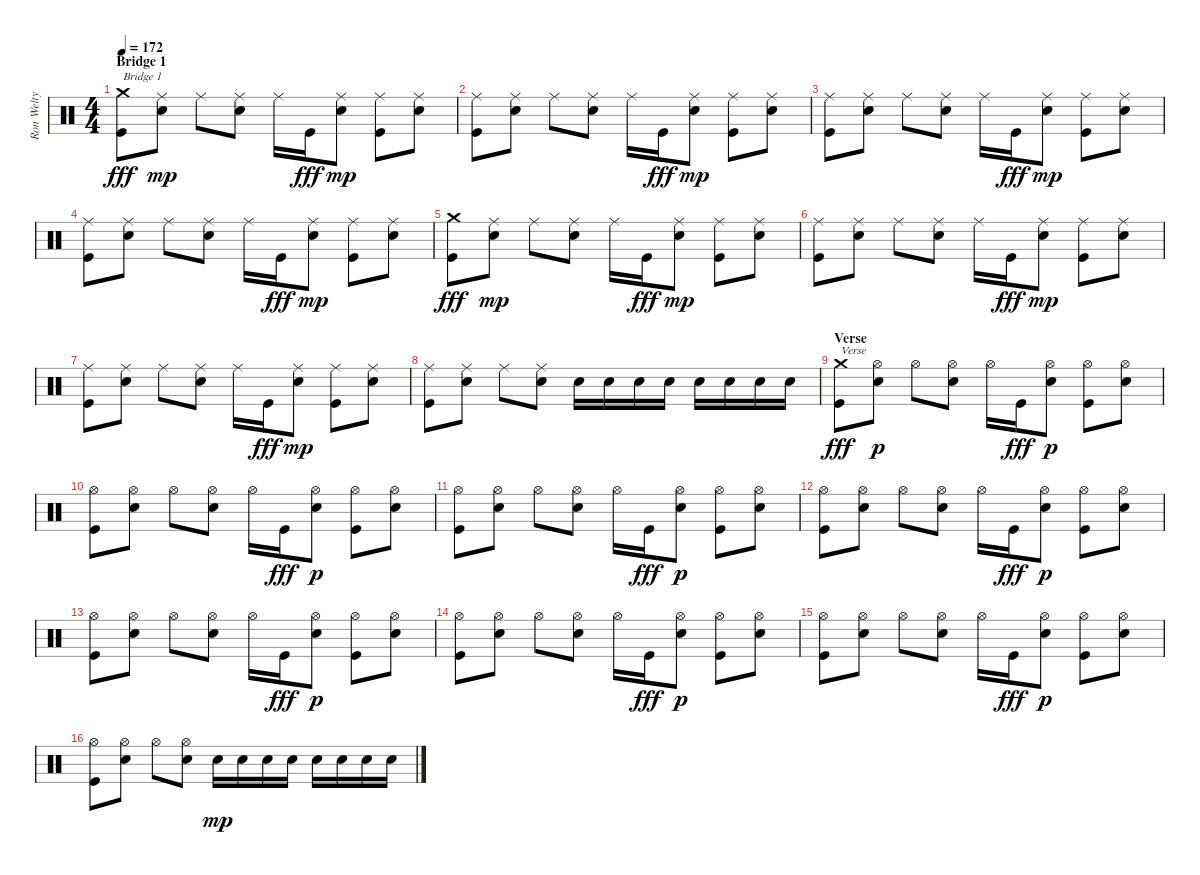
\track ("Ron Welty (John Wnek's tab)" "Ron Welty ") {instrument percussion}
\staff {score}
\articulation defaults
\ts (4 4)
\section ("" "Bridge 1")
\tempo 172
\clef neutral
\ks c
("Crash medium (hit)" "Kick (hit)").8{txt "Bridge 1" dy fff} ("Snare (hit) 2" "Ride (middle)").8{dy mp} "Ride (middle)".8 ("Snare (hit) 2" "Ride (middle)").8 "Ride (middle)".16 "Kick (hit)".16{dy fff} ("Snare (hit) 2" "Ride (middle)").8{dy mp} ("Kick (hit)" "Ride (middle)").8 ("Snare (hit) 2" "Ride (middle)").8 |
("Kick (hit)" "Ride (middle)").8 ("Snare (hit) 2" "Ride (middle)").8 "Ride (middle)".8 ("Snare (hit) 2" "Ride (middle)").8 "Ride (middle)".16 "Kick (hit)".16{dy fff} ("Snare (hit) 2" "Ride (middle)").8{dy mp} ("Kick (hit)" "Ride (middle)").8 ("Snare (hit) 2" "Ride (middle)").8 |
("Kick (hit)" "Ride (middle)").8 ("Snare (hit) 2" "Ride (middle)").8 "Ride (middle)".8 ("Snare (hit) 2" "Ride (middle)").8 "Ride (middle)".16 "Kick (hit)".16{dy fff} ("Snare (hit) 2" "Ride (middle)").8{dy mp} ("Kick (hit)" "Ride (middle)").8 ("Snare (hit) 2" "Ride (middle)").8 |
("Kick (hit)" "Ride (middle)").8 ("Snare (hit) 2" "Ride (middle)").8 "Ride (middle)".8 ("Snare (hit) 2" "Ride (middle)").8 "Ride (middle)".16 "Kick (hit)".16{dy fff} ("Snare (hit) 2" "Ride (middle)").8{dy mp} ("Kick (hit)" "Ride (middle)").8 ("Snare (hit) 2" "Ride (middle)").8 |
("Crash medium (hit)" "Kick (hit)").8{dy fff} ("Snare (hit) 2" "Ride (middle)").8{dy mp} "Ride (middle)".8 ("Snare (hit) 2" "Ride (middle)").8 "Ride (middle)".16 "Kick (hit)".16{dy fff} ("Snare (hit) 2" "Ride (middle)").8{dy mp} ("Kick (hit)" "Ride (middle)").8 ("Snare (hit) 2" "Ride (middle)").8 |
("Kick (hit)" "Ride (middle)").8 ("Snare (hit) 2" "Ride (middle)").8 "Ride (middle)".8 ("Snare (hit) 2" "Ride (middle)").8 "Ride (middle)".16 "Kick (hit)".16{dy fff} ("Snare (hit) 2" "Ride (middle)").8{dy mp} ("Kick (hit)" "Ride (middle)").8 ("Snare (hit) 2" "Ride (middle)").8 |
("Kick (hit)" "Ride (middle)").8 ("Snare (hit) 2" "Ride (middle)").8 "Ride (middle)".8 ("Snare (hit) 2" "Ride (middle)").8 "Ride (middle)".16 "Kick (hit)".16{dy fff} ("Snare (hit) 2" "Ride (middle)").8{dy mp} ("Kick (hit)" "Ride (middle)").8 ("Snare (hit) 2" "Ride (middle)").8 |
("Kick (hit)" "Ride (middle)").8 ("Snare (hit) 2" "Ride (middle)").8 "Ride (middle)".8 ("Snare (hit) 2" "Ride (middle)").8 "Snare (hit) 2".16 "Snare (hit) 2".16 "Snare (hit) 2".16 "Snare (hit) 2".16 "Snare (hit) 2".16 "Snare (hit) 2".16 "Snare (hit) 2".16 "Snare (hit) 2".16 |
\section ("" "Verse")
("Crash medium (hit)" "Kick (hit)").8{txt "Verse" dy fff} ("Snare (hit) 2" "Hi-Hat (open)").8{dy p} "Hi-Hat (open)".8 ("Snare (hit) 2" "Hi-Hat (open)").8 "Hi-Hat (open)".16 "Kick (hit)".16{dy fff} ("Snare (hit) 2" "Hi-Hat (open)").8{dy p} ("Kick (hit)" "Hi-Hat (open)").8 ("Snare (hit) 2" "Hi-Hat (open)").8 |
("Kick (hit)" "Hi-Hat (open)").8 ("Snare (hit) 2" "Hi-Hat (open)").8 "Hi-Hat (open)".8 ("Snare (hit) 2" "Hi-Hat (open)").8 "Hi-Hat (open)".16 "Kick (hit)".16{dy fff} ("Snare (hit) 2" "Hi-Hat (open)").8{dy p} ("Kick (hit)" "Hi-Hat (open)").8 ("Snare (hit) 2" "Hi-Hat (open)").8 |
("Kick (hit)" "Hi-Hat (open)").8 ("Snare (hit) 2" "Hi-Hat (open)").8 "Hi-Hat (open)".8 ("Snare (hit) 2" "Hi-Hat (open)").8 "Hi-Hat (open)".16 "Kick (hit)".16{dy fff} ("Snare (hit) 2" "Hi-Hat (open)").8{dy p} ("Kick (hit)" "Hi-Hat (open)").8 ("Snare (hit) 2" "Hi-Hat (open)").8 |
("Kick (hit)" "Hi-Hat (open)").8 ("Snare (hit) 2" "Hi-Hat (open)").8 "Hi-Hat (open)".8 ("Snare (hit) 2" "Hi-Hat (open)").8 "Hi-Hat (open)".16 "Kick (hit)".16{dy fff} ("Snare (hit) 2" "Hi-Hat (open)").8{dy p} ("Kick (hit)" "Hi-Hat (open)").8 ("Snare (hit) 2" "Hi-Hat (open)").8 |
("Kick (hit)" "Hi-Hat (open)").8 ("Snare (hit) 2" "Hi-Hat (open)").8 "Hi-Hat (open)".8 ("Snare (hit) 2" "Hi-Hat (open)").8 "Hi-Hat (open)".16 "Kick (hit)".16{dy fff} ("Snare (hit) 2" "Hi-Hat (open)").8{dy p} ("Kick (hit)" "Hi-Hat (open)").8 ("Snare (hit) 2" "Hi-Hat (open)").8 |
("Kick (hit)" "Hi-Hat (open)").8 ("Snare (hit) 2" "Hi-Hat (open)").8 "Hi-Hat (open)".8 ("Snare (hit) 2" "Hi-Hat (open)").8 "Hi-Hat (open)".16 "Kick (hit)".16{dy fff} ("Snare (hit) 2" "Hi-Hat (open)").8{dy p} ("Kick (hit)" "Hi-Hat (open)").8 ("Snare (hit) 2" "Hi-Hat (open)").8 |
("Kick (hit)" "Hi-Hat (open)").8 ("Snare (hit) 2" "Hi-Hat (open)").8 "Hi-Hat (open)".8 ("Snare (hit) 2" "Hi-Hat (open)").8 "Hi-Hat (open)".16 "Kick (hit)".16{dy fff} ("Snare (hit) 2" "Hi-Hat (open)").8{dy p} ("Kick (hit)" "Hi-Hat (open)").8 ("Snare (hit) 2" "Hi-Hat (open)").8 |
("Kick (hit)" "Hi-Hat (open)").8 ("Snare (hit) 2" "Hi-Hat (open)").8 "Hi-Hat (open)".8 ("Snare (hit) 2" "Hi-Hat (open)").8 "Snare (hit) 2".16{dy mp} "Snare (hit) 2".16 "Snare (hit) 2".16 "Snare (hit) 2".16 "Snare (hit) 2".16 "Snare (hit) 2".16 "Snare (hit) 2".16 "Snare (hit) 2".16
